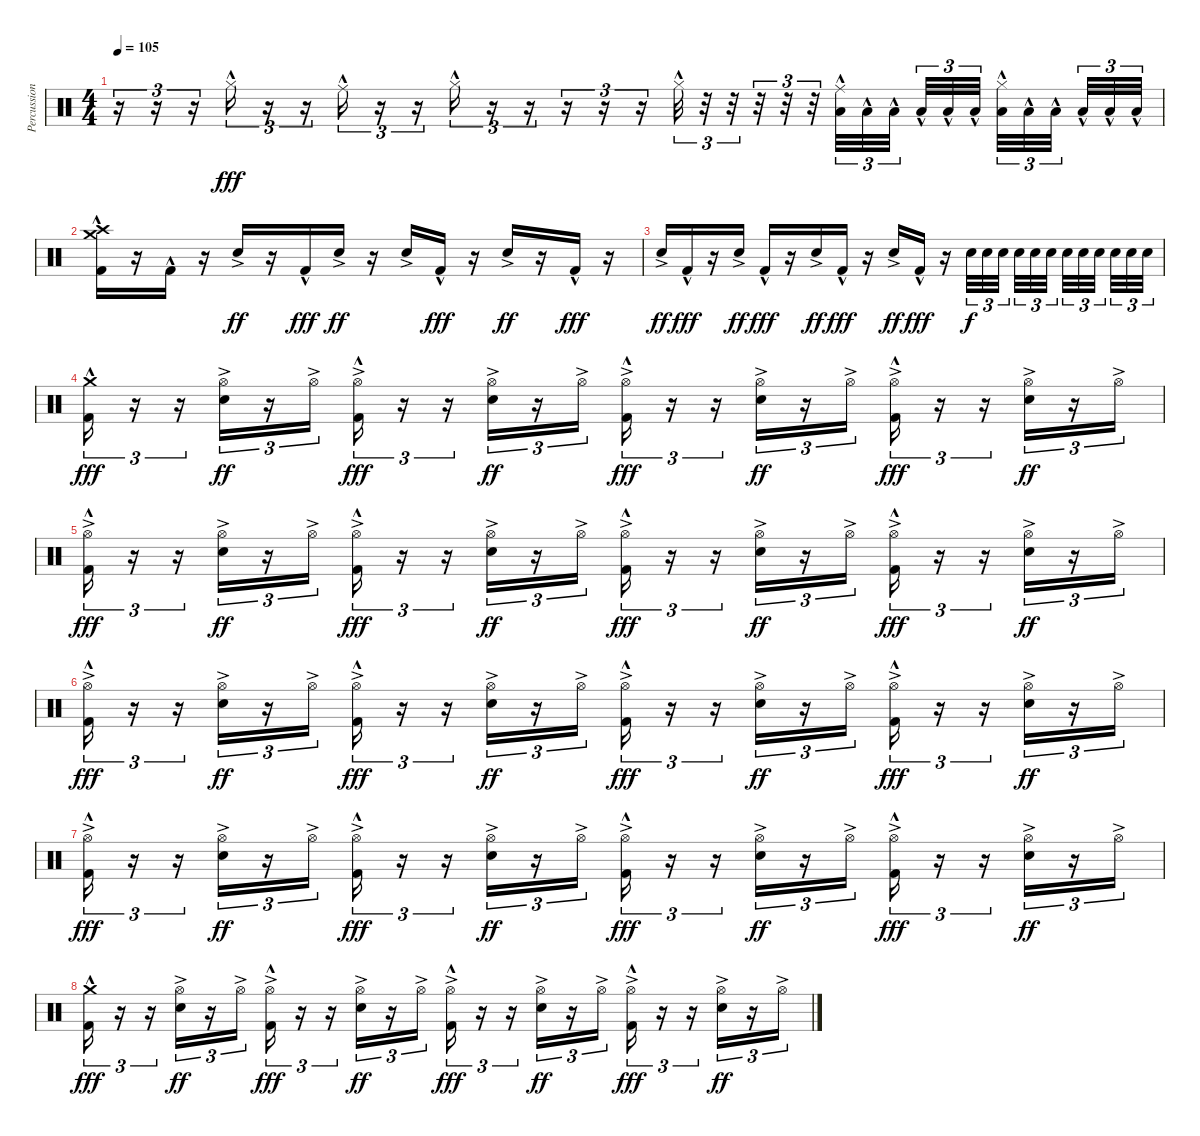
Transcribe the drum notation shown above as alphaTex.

\track ("Percussion" "Percussion") {instrument percussion}
\staff {score}
\articulation defaults
\ts (4 4)
\tempo 105
\clef neutral
\ks c
r.16{tu (3 2) dy fff} r.16{tu (3 2)} r.16{tu (3 2)} "Hi-Hat (closed)"{hac}.16{tu (3 2)} r.16{tu (3 2)} r.16{tu (3 2)} "Ride (middle)"{hac}.16{tu (3 2)} r.16{tu (3 2)} r.16{tu (3 2)} "Hi-Hat (closed)"{hac}.16{tu (3 2)} r.16{tu (3 2)} r.16{tu (3 2)} r.16{tu (3 2)} r.16{tu (3 2)} r.16{tu (3 2)} "Hi-Hat (closed)"{hac}.32{tu (3 2)} r.32{tu (3 2)} r.32{tu (3 2)} r.32{tu (3 2)} r.32{tu (3 2)} r.32{tu (3 2)} ("Ride (middle)"{hac} "Low Floor Tom (hit)"{hac}).32{tu (3 2) volume 14} "Low Floor Tom (hit)"{hac}.32{tu (3 2) volume 16} "Low Floor Tom (hit)"{hac}.32{tu (3 2) beam splitsecondary} "Low Floor Tom (hit)"{hac}.32{tu (3 2)} "Low Floor Tom (hit)"{hac}.32{tu (3 2)} "Low Floor Tom (hit)"{hac}.32{tu (3 2) beam splitsecondary} ("Hi-Hat (closed)"{hac} "Low Floor Tom (hit)"{hac}).32{tu (3 2)} "Low Floor Tom (hit)"{hac}.32{tu (3 2)} "Low Floor Tom (hit)"{hac}.32{tu (3 2) beam splitsecondary} "Low Floor Tom (hit)"{hac}.32{tu (3 2)} "Low Floor Tom (hit)"{hac}.32{tu (3 2)} "Low Floor Tom (hit)"{hac}.32{tu (3 2)} |
("Crash medium (hit)"{hac} "Crash high (hit)"{hac} "Kick (hit) 2"{hac}).16{volume 16} r.16 "Kick (hit) 2"{hac}.16 r.16 "Snare (hit) 2"{ac}.16{dy ff} r.16 "Kick (hit) 2"{hac}.16{dy fff} "Snare (hit) 2"{ac}.16{dy ff} r.16 "Snare (hit) 2"{ac}.16 "Kick (hit) 2"{hac}.16{dy fff} r.16 "Snare (hit) 2"{ac}.16{dy ff} r.16 "Kick (hit) 2"{hac}.16{dy fff} r.16 |
"Snare (hit) 2"{ac}.16{dy ff} "Kick (hit) 2"{hac}.16{dy fff} r.16 "Snare (hit) 2"{ac}.16{dy ff} "Kick (hit) 2"{hac}.16{dy fff} r.16 "Snare (hit) 2"{ac}.16{dy ff} "Kick (hit) 2"{hac}.16{dy fff} r.16 "Snare (hit) 2"{ac}.16{dy ff} "Kick (hit) 2"{hac}.16{dy fff} r.16 "Snare (hit) 2".32{tu (3 2) dy f} "Snare (hit) 2".32{tu (3 2)} "Snare (hit) 2".32{tu (3 2) beam splitsecondary} "Snare (hit) 2".32{tu (3 2)} "Snare (hit) 2".32{tu (3 2)} "Snare (hit) 2".32{tu (3 2) beam splitsecondary} "Snare (hit) 2".32{tu (3 2)} "Snare (hit) 2".32{tu (3 2)} "Snare (hit) 2".32{tu (3 2) beam splitsecondary} "Snare (hit) 2".32{tu (3 2)} "Snare (hit) 2".32{tu (3 2)} "Snare (hit) 2".32{tu (3 2)} |
("Crash medium (hit)"{hac} "Kick (hit) 2"{hac}).16{tu (3 2) dy fff} r.16{tu (3 2)} r.16{tu (3 2)} ("Hi-Hat (open)"{ac} "Snare (hit) 2"{ac}).16{tu (3 2) dy ff} r.16{tu (3 2)} "Hi-Hat (open)"{ac}.16{tu (3 2)} ("Hi-Hat (open)"{ac} "Kick (hit) 2"{hac}).16{tu (3 2) dy fff} r.16{tu (3 2)} r.16{tu (3 2)} ("Hi-Hat (open)"{ac} "Snare (hit) 2"{ac}).16{tu (3 2) dy ff} r.16{tu (3 2)} "Hi-Hat (open)"{ac}.16{tu (3 2)} ("Hi-Hat (open)"{ac} "Kick (hit) 2"{hac}).16{tu (3 2) dy fff} r.16{tu (3 2)} r.16{tu (3 2)} ("Hi-Hat (open)"{ac} "Snare (hit) 2"{ac}).16{tu (3 2) dy ff} r.16{tu (3 2)} "Hi-Hat (open)"{ac}.16{tu (3 2)} ("Hi-Hat (open)"{ac} "Kick (hit) 2"{hac}).16{tu (3 2) dy fff} r.16{tu (3 2)} r.16{tu (3 2)} ("Hi-Hat (open)"{ac} "Snare (hit) 2"{ac}).16{tu (3 2) dy ff} r.16{tu (3 2)} "Hi-Hat (open)"{ac}.16{tu (3 2)} |
("Hi-Hat (open)"{ac} "Kick (hit) 2"{hac}).16{tu (3 2) dy fff} r.16{tu (3 2)} r.16{tu (3 2)} ("Hi-Hat (open)"{ac} "Snare (hit) 2"{ac}).16{tu (3 2) dy ff} r.16{tu (3 2)} "Hi-Hat (open)"{ac}.16{tu (3 2)} ("Hi-Hat (open)"{ac} "Kick (hit) 2"{hac}).16{tu (3 2) dy fff} r.16{tu (3 2)} r.16{tu (3 2)} ("Hi-Hat (open)"{ac} "Snare (hit) 2"{ac}).16{tu (3 2) dy ff} r.16{tu (3 2)} "Hi-Hat (open)"{ac}.16{tu (3 2)} ("Hi-Hat (open)"{ac} "Kick (hit) 2"{hac}).16{tu (3 2) dy fff} r.16{tu (3 2)} r.16{tu (3 2)} ("Hi-Hat (open)"{ac} "Snare (hit) 2"{ac}).16{tu (3 2) dy ff} r.16{tu (3 2)} "Hi-Hat (open)"{ac}.16{tu (3 2)} ("Hi-Hat (open)"{ac} "Kick (hit) 2"{hac}).16{tu (3 2) dy fff} r.16{tu (3 2)} r.16{tu (3 2)} ("Hi-Hat (open)"{ac} "Snare (hit) 2"{ac}).16{tu (3 2) dy ff} r.16{tu (3 2)} "Hi-Hat (open)"{ac}.16{tu (3 2)} |
("Hi-Hat (open)"{ac} "Kick (hit) 2"{hac}).16{tu (3 2) dy fff} r.16{tu (3 2)} r.16{tu (3 2)} ("Hi-Hat (open)"{ac} "Snare (hit) 2"{ac}).16{tu (3 2) dy ff} r.16{tu (3 2)} "Hi-Hat (open)"{ac}.16{tu (3 2)} ("Hi-Hat (open)"{ac} "Kick (hit) 2"{hac}).16{tu (3 2) dy fff} r.16{tu (3 2)} r.16{tu (3 2)} ("Hi-Hat (open)"{ac} "Snare (hit) 2"{ac}).16{tu (3 2) dy ff} r.16{tu (3 2)} "Hi-Hat (open)"{ac}.16{tu (3 2)} ("Hi-Hat (open)"{ac} "Kick (hit) 2"{hac}).16{tu (3 2) dy fff} r.16{tu (3 2)} r.16{tu (3 2)} ("Hi-Hat (open)"{ac} "Snare (hit) 2"{ac}).16{tu (3 2) dy ff} r.16{tu (3 2)} "Hi-Hat (open)"{ac}.16{tu (3 2)} ("Hi-Hat (open)"{ac} "Kick (hit) 2"{hac}).16{tu (3 2) dy fff} r.16{tu (3 2)} r.16{tu (3 2)} ("Hi-Hat (open)"{ac} "Snare (hit) 2"{ac}).16{tu (3 2) dy ff} r.16{tu (3 2)} "Hi-Hat (open)"{ac}.16{tu (3 2)} |
("Hi-Hat (open)"{ac} "Kick (hit) 2"{hac}).16{tu (3 2) dy fff} r.16{tu (3 2)} r.16{tu (3 2)} ("Hi-Hat (open)"{ac} "Snare (hit) 2"{ac}).16{tu (3 2) dy ff} r.16{tu (3 2)} "Hi-Hat (open)"{ac}.16{tu (3 2)} ("Hi-Hat (open)"{ac} "Kick (hit) 2"{hac}).16{tu (3 2) dy fff} r.16{tu (3 2)} r.16{tu (3 2)} ("Hi-Hat (open)"{ac} "Snare (hit) 2"{ac}).16{tu (3 2) dy ff} r.16{tu (3 2)} "Hi-Hat (open)"{ac}.16{tu (3 2)} ("Hi-Hat (open)"{ac} "Kick (hit) 2"{hac}).16{tu (3 2) dy fff} r.16{tu (3 2)} r.16{tu (3 2)} ("Hi-Hat (open)"{ac} "Snare (hit) 2"{ac}).16{tu (3 2) dy ff} r.16{tu (3 2)} "Hi-Hat (open)"{ac}.16{tu (3 2)} ("Hi-Hat (open)"{ac} "Kick (hit) 2"{hac}).16{tu (3 2) dy fff} r.16{tu (3 2)} r.16{tu (3 2)} ("Hi-Hat (open)"{ac} "Snare (hit) 2"{ac}).16{tu (3 2) dy ff} r.16{tu (3 2)} "Hi-Hat (open)"{ac}.16{tu (3 2)} |
("Crash medium (hit)"{hac} "Kick (hit) 2"{hac}).16{tu (3 2) dy fff} r.16{tu (3 2)} r.16{tu (3 2)} ("Hi-Hat (open)"{ac} "Snare (hit) 2"{ac}).16{tu (3 2) dy ff} r.16{tu (3 2)} "Hi-Hat (open)"{ac}.16{tu (3 2)} ("Hi-Hat (open)"{ac} "Kick (hit) 2"{hac}).16{tu (3 2) dy fff} r.16{tu (3 2)} r.16{tu (3 2)} ("Hi-Hat (open)"{ac} "Snare (hit) 2"{ac}).16{tu (3 2) dy ff} r.16{tu (3 2)} "Hi-Hat (open)"{ac}.16{tu (3 2)} ("Hi-Hat (open)"{ac} "Kick (hit) 2"{hac}).16{tu (3 2) dy fff} r.16{tu (3 2)} r.16{tu (3 2)} ("Hi-Hat (open)"{ac} "Snare (hit) 2"{ac}).16{tu (3 2) dy ff} r.16{tu (3 2)} "Hi-Hat (open)"{ac}.16{tu (3 2)} ("Hi-Hat (open)"{ac} "Kick (hit) 2"{hac}).16{tu (3 2) dy fff} r.16{tu (3 2)} r.16{tu (3 2)} ("Hi-Hat (open)"{ac} "Snare (hit) 2"{ac}).16{tu (3 2) dy ff} r.16{tu (3 2)} "Hi-Hat (open)"{ac}.16{tu (3 2)}
